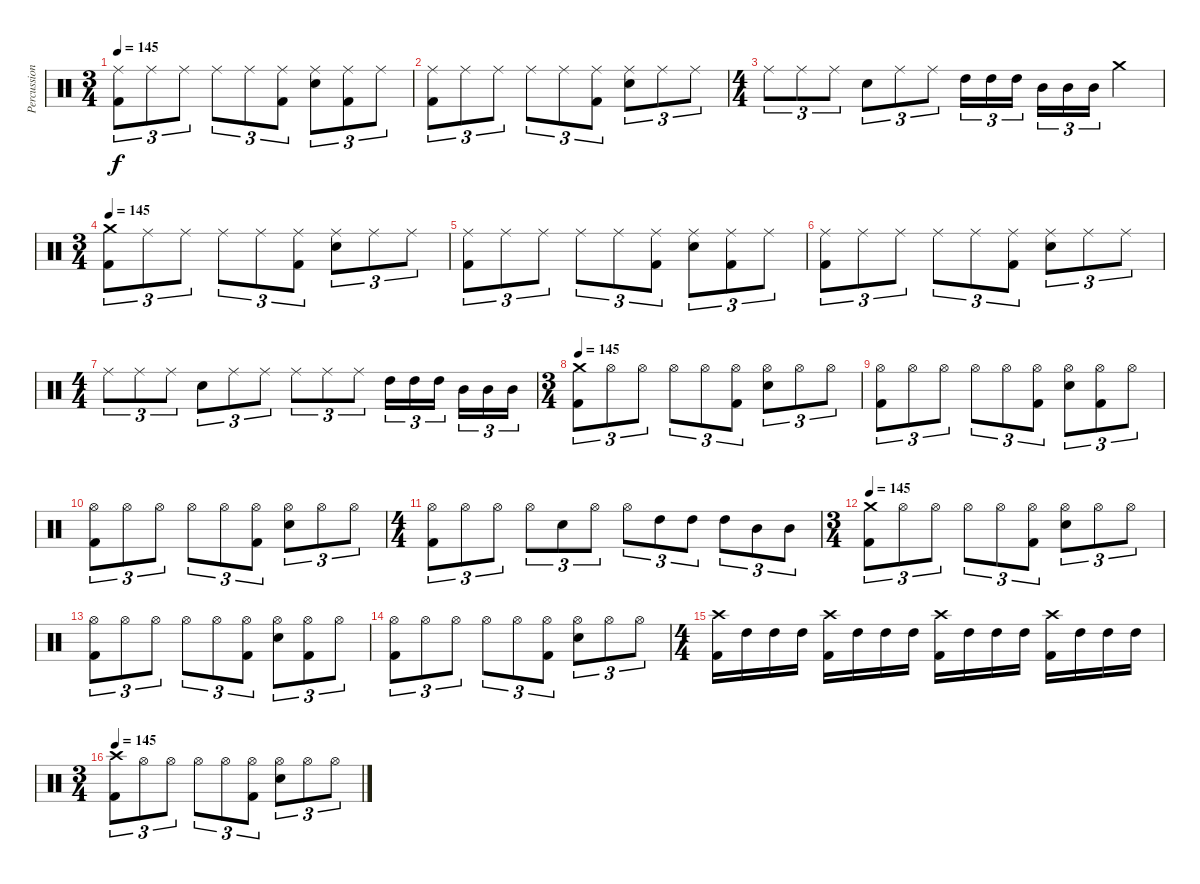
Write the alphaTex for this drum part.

\track ("Percussion" "Percussion") {instrument percussion}
\staff {score}
\articulation defaults
\ts (3 4)
\tempo 145
\clef neutral
\ks c
("Ride (middle)" "Kick (hit) 2").8{tu (3 2) dy f} "Ride (middle)".8{tu (3 2)} "Ride (middle)".8{tu (3 2)} "Ride (middle)".8{tu (3 2)} "Ride (middle)".8{tu (3 2)} ("Ride (middle)" "Kick (hit) 2").8{tu (3 2)} ("Ride (middle)" "Electric Snare (hit)").8{tu (3 2)} ("Ride (middle)" "Kick (hit) 2").8{tu (3 2)} "Ride (middle)".8{tu (3 2)} |
("Ride (middle)" "Kick (hit) 2").8{tu (3 2)} "Ride (middle)".8{tu (3 2)} "Ride (middle)".8{tu (3 2)} "Ride (middle)".8{tu (3 2)} "Ride (middle)".8{tu (3 2)} ("Ride (middle)" "Kick (hit) 2").8{tu (3 2)} ("Ride (middle)" "Electric Snare (hit)").8{tu (3 2)} "Ride (middle)".8{tu (3 2)} "Ride (middle)".8{tu (3 2)} |
\ts (4 4)
"Ride (middle)".8{tu (3 2)} "Ride (middle)".8{tu (3 2)} "Ride (middle)".8{tu (3 2)} "Electric Snare (hit)".8{tu (3 2)} "Ride (middle)".8{tu (3 2)} "Ride (middle)".8{tu (3 2)} "High Tom (hit)".16{tu (3 2)} "High Tom (hit)".16{tu (3 2)} "High Tom (hit)".16{tu (3 2)} "Mid Tom (hit)".16{tu (3 2)} "Mid Tom (hit)".16{tu (3 2)} "Mid Tom (hit)".16{tu (3 2)} "Crash medium (hit)".4 |
\ts (3 4)
\tempo 145
("Crash medium (hit)" "Kick (hit) 2").8{tu (3 2)} "Ride (middle)".8{tu (3 2)} "Ride (middle)".8{tu (3 2)} "Ride (middle)".8{tu (3 2)} "Ride (middle)".8{tu (3 2)} ("Ride (middle)" "Kick (hit) 2").8{tu (3 2)} ("Ride (middle)" "Electric Snare (hit)").8{tu (3 2)} "Ride (middle)".8{tu (3 2)} "Ride (middle)".8{tu (3 2)} |
("Ride (middle)" "Kick (hit) 2").8{tu (3 2)} "Ride (middle)".8{tu (3 2)} "Ride (middle)".8{tu (3 2)} "Ride (middle)".8{tu (3 2)} "Ride (middle)".8{tu (3 2)} ("Ride (middle)" "Kick (hit) 2").8{tu (3 2)} ("Ride (middle)" "Electric Snare (hit)").8{tu (3 2)} ("Ride (middle)" "Kick (hit) 2").8{tu (3 2)} "Ride (middle)".8{tu (3 2)} |
("Ride (middle)" "Kick (hit) 2").8{tu (3 2)} "Ride (middle)".8{tu (3 2)} "Ride (middle)".8{tu (3 2)} "Ride (middle)".8{tu (3 2)} "Ride (middle)".8{tu (3 2)} ("Ride (middle)" "Kick (hit) 2").8{tu (3 2)} ("Ride (middle)" "Electric Snare (hit)").8{tu (3 2)} "Ride (middle)".8{tu (3 2)} "Ride (middle)".8{tu (3 2)} |
\ts (4 4)
"Ride (middle)".8{tu (3 2)} "Ride (middle)".8{tu (3 2)} "Ride (middle)".8{tu (3 2)} "Electric Snare (hit)".8{tu (3 2)} "Ride (middle)".8{tu (3 2)} "Ride (middle)".8{tu (3 2)} "Ride (middle)".8{tu (3 2)} "Ride (middle)".8{tu (3 2)} "Ride (middle)".8{tu (3 2)} "High Tom (hit)".16{tu (3 2)} "High Tom (hit)".16{tu (3 2)} "High Tom (hit)".16{tu (3 2)} "Mid Tom (hit)".16{tu (3 2)} "Mid Tom (hit)".16{tu (3 2)} "Mid Tom (hit)".16{tu (3 2)} |
\ts (3 4)
\tempo 145
("Crash medium (hit)" "Kick (hit) 2").8{tu (3 2)} "Hi-Hat (open)".8{tu (3 2)} "Hi-Hat (open)".8{tu (3 2)} "Hi-Hat (open)".8{tu (3 2)} "Hi-Hat (open)".8{tu (3 2)} ("Hi-Hat (open)" "Kick (hit) 2").8{tu (3 2)} ("Hi-Hat (open)" "Electric Snare (hit)").8{tu (3 2)} "Hi-Hat (open)".8{tu (3 2)} "Hi-Hat (open)".8{tu (3 2)} |
("Hi-Hat (open)" "Kick (hit) 2").8{tu (3 2)} "Hi-Hat (open)".8{tu (3 2)} "Hi-Hat (open)".8{tu (3 2)} "Hi-Hat (open)".8{tu (3 2)} "Hi-Hat (open)".8{tu (3 2)} ("Hi-Hat (open)" "Kick (hit) 2").8{tu (3 2)} ("Hi-Hat (open)" "Electric Snare (hit)").8{tu (3 2)} ("Hi-Hat (open)" "Kick (hit) 2").8{tu (3 2)} "Hi-Hat (open)".8{tu (3 2)} |
("Hi-Hat (open)" "Kick (hit) 2").8{tu (3 2)} "Hi-Hat (open)".8{tu (3 2)} "Hi-Hat (open)".8{tu (3 2)} "Hi-Hat (open)".8{tu (3 2)} "Hi-Hat (open)".8{tu (3 2)} ("Hi-Hat (open)" "Kick (hit) 2").8{tu (3 2)} ("Hi-Hat (open)" "Electric Snare (hit)").8{tu (3 2)} "Hi-Hat (open)".8{tu (3 2)} "Hi-Hat (open)".8{tu (3 2)} |
\ts (4 4)
("Hi-Hat (open)" "Kick (hit) 2").8{tu (3 2)} "Hi-Hat (open)".8{tu (3 2)} "Hi-Hat (open)".8{tu (3 2)} "Hi-Hat (open)".8{tu (3 2)} "Electric Snare (hit)".8{tu (3 2)} "Hi-Hat (open)".8{tu (3 2)} "Hi-Hat (open)".8{tu (3 2)} "High Tom (hit)".8{tu (3 2)} "High Tom (hit)".8{tu (3 2)} "High Tom (hit)".8{tu (3 2)} "Mid Tom (hit)".8{tu (3 2)} "Mid Tom (hit)".8{tu (3 2)} |
\ts (3 4)
\tempo 145
("Crash medium (hit)" "Kick (hit) 2").8{tu (3 2)} "Hi-Hat (open)".8{tu (3 2)} "Hi-Hat (open)".8{tu (3 2)} "Hi-Hat (open)".8{tu (3 2)} "Hi-Hat (open)".8{tu (3 2)} ("Hi-Hat (open)" "Kick (hit) 2").8{tu (3 2)} ("Hi-Hat (open)" "Electric Snare (hit)").8{tu (3 2)} "Hi-Hat (open)".8{tu (3 2)} "Hi-Hat (open)".8{tu (3 2)} |
("Hi-Hat (open)" "Kick (hit) 2").8{tu (3 2)} "Hi-Hat (open)".8{tu (3 2)} "Hi-Hat (open)".8{tu (3 2)} "Hi-Hat (open)".8{tu (3 2)} "Hi-Hat (open)".8{tu (3 2)} ("Hi-Hat (open)" "Kick (hit) 2").8{tu (3 2)} ("Hi-Hat (open)" "Electric Snare (hit)").8{tu (3 2)} ("Hi-Hat (open)" "Kick (hit) 2").8{tu (3 2)} "Hi-Hat (open)".8{tu (3 2)} |
("Hi-Hat (open)" "Kick (hit) 2").8{tu (3 2)} "Hi-Hat (open)".8{tu (3 2)} "Hi-Hat (open)".8{tu (3 2)} "Hi-Hat (open)".8{tu (3 2)} "Hi-Hat (open)".8{tu (3 2)} ("Hi-Hat (open)" "Kick (hit) 2").8{tu (3 2)} ("Hi-Hat (open)" "Electric Snare (hit)").8{tu (3 2)} "Hi-Hat (open)".8{tu (3 2)} "Hi-Hat (open)".8{tu (3 2)} |
\ts (4 4)
("Crash high (hit)" "Kick (hit) 2").16 "High Tom (hit)".16 "High Tom (hit)".16 "High Tom (hit)".16 ("Crash high (hit)" "Kick (hit) 2").16 "High Tom (hit)".16 "High Tom (hit)".16 "High Tom (hit)".16 ("Crash high (hit)" "Kick (hit) 2").16 "High Tom (hit)".16 "High Tom (hit)".16 "High Tom (hit)".16 ("Crash high (hit)" "Kick (hit) 2").16 "High Tom (hit)".16 "High Tom (hit)".16 "High Tom (hit)".16 |
\ts (3 4)
\tempo 145
("Crash high (hit)" "Kick (hit) 2").8{tu (3 2)} "Hi-Hat (open)".8{tu (3 2)} "Hi-Hat (open)".8{tu (3 2)} "Hi-Hat (open)".8{tu (3 2)} "Hi-Hat (open)".8{tu (3 2)} ("Hi-Hat (open)" "Kick (hit) 2").8{tu (3 2)} ("Hi-Hat (open)" "Electric Snare (hit)").8{tu (3 2)} "Hi-Hat (open)".8{tu (3 2)} "Hi-Hat (open)".8{tu (3 2)}
